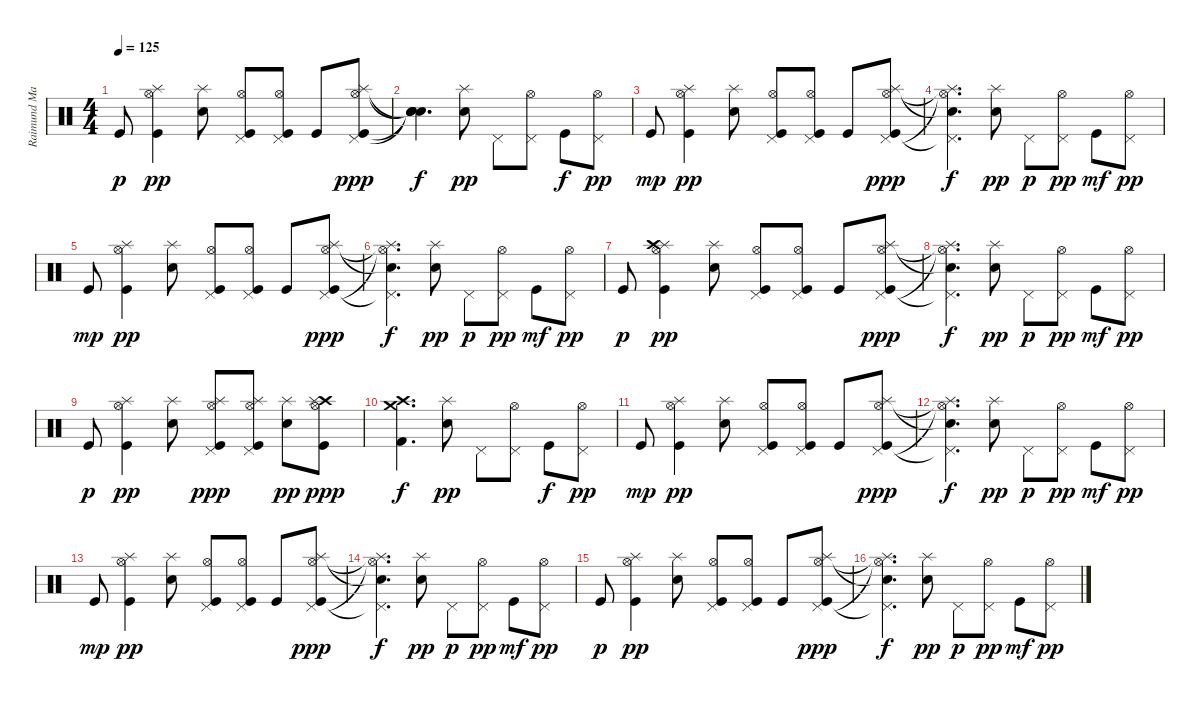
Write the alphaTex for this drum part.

\track ("Raimund Marasigan (Drums)" "Raimund Ma") {instrument percussion}
\staff {score}
\articulation defaults
\ts (4 4)
\tempo 125
\clef neutral
\ks c "Kick (hit)".8{dy p}
("Kick (hit)" "Splash (hit)" "Hi-Hat (open)").4{dy pp} ("Electric Snare (hit)" "Splash (hit)").8 ("Kick (hit)" "Pedal Hi-Hat (hit)" "Hi-Hat (open)").8 ("Kick (hit)" "Pedal Hi-Hat (hit)" "Hi-Hat (open)").8 "Kick (hit)".8 ("Kick (hit)" "Pedal Hi-Hat (hit)" "Hi-Hat (open)" "Splash (hit)").8{dy ppp} |
("Snare (hit)"{t} "Snare (hit)"{t} "Snare (hit)"{t} "Snare (hit)"{t}).4{d dy f} ("Electric Snare (hit)" "Splash (hit)").8{dy pp} "Pedal Hi-Hat (hit)".8 ("Pedal Hi-Hat (hit)" "Hi-Hat (open)").8 "Kick (hit)".8{dy f} ("Pedal Hi-Hat (hit)" "Hi-Hat (open)").8{dy pp} |
"Kick (hit)".8{dy mp} ("Kick (hit)" "Splash (hit)" "Hi-Hat (open)").4{dy pp} ("Electric Snare (hit)" "Splash (hit)").8 ("Kick (hit)" "Pedal Hi-Hat (hit)" "Hi-Hat (open)").8 ("Kick (hit)" "Pedal Hi-Hat (hit)" "Hi-Hat (open)").8 "Kick (hit)".8 ("Kick (hit)" "Pedal Hi-Hat (hit)" "Hi-Hat (open)" "Splash (hit)").8{dy ppp} |
("Pedal Hi-Hat (hit)"{t} "Hi-Hat (open)"{t} "Splash (hit)"{t} "Snare (hit)"{t}).4{d dy f} ("Electric Snare (hit)" "Splash (hit)").8{dy pp} "Pedal Hi-Hat (hit)".8{dy p} ("Pedal Hi-Hat (hit)" "Hi-Hat (open)").8{dy pp} "Kick (hit)".8{dy mf} ("Pedal Hi-Hat (hit)" "Hi-Hat (open)").8{dy pp} |
"Kick (hit)".8{dy mp} ("Kick (hit)" "Splash (hit)" "Hi-Hat (open)").4{dy pp} ("Electric Snare (hit)" "Splash (hit)").8 ("Kick (hit)" "Pedal Hi-Hat (hit)" "Hi-Hat (open)").8 ("Kick (hit)" "Pedal Hi-Hat (hit)" "Hi-Hat (open)").8 "Kick (hit)".8 ("Kick (hit)" "Pedal Hi-Hat (hit)" "Hi-Hat (open)" "Splash (hit)").8{dy ppp} |
("Pedal Hi-Hat (hit)"{t} "Hi-Hat (open)"{t} "Splash (hit)"{t} "Snare (hit)"{t}).4{d dy f} ("Electric Snare (hit)" "Splash (hit)").8{dy pp} "Pedal Hi-Hat (hit)".8{dy p} ("Pedal Hi-Hat (hit)" "Hi-Hat (open)").8{dy pp} "Kick (hit)".8{dy mf} ("Pedal Hi-Hat (hit)" "Hi-Hat (open)").8{dy pp} |
"Kick (hit)".8{dy p} ("Kick (hit)" "Splash (hit)" "Hi-Hat (open)" "Crash high (hit)").4{dy pp} ("Electric Snare (hit)" "Splash (hit)").8 ("Kick (hit)" "Pedal Hi-Hat (hit)" "Hi-Hat (open)").8 ("Kick (hit)" "Pedal Hi-Hat (hit)" "Hi-Hat (open)").8 "Kick (hit)".8 ("Kick (hit)" "Pedal Hi-Hat (hit)" "Hi-Hat (open)" "Splash (hit)").8{dy ppp} |
("Pedal Hi-Hat (hit)"{t} "Hi-Hat (open)"{t} "Splash (hit)"{t} "Snare (hit)"{t}).4{d dy f} ("Electric Snare (hit)" "Splash (hit)").8{dy pp} "Pedal Hi-Hat (hit)".8{dy p} ("Pedal Hi-Hat (hit)" "Hi-Hat (open)").8{dy pp} "Kick (hit)".8{dy mf} ("Pedal Hi-Hat (hit)" "Hi-Hat (open)").8{dy pp} |
"Kick (hit)".8{dy p} ("Kick (hit)" "Splash (hit)" "Hi-Hat (open)").4{dy pp} ("Electric Snare (hit)" "Splash (hit)").8 ("Kick (hit)" "Pedal Hi-Hat (hit)" "Hi-Hat (open)" "Splash (hit)").8{dy ppp} ("Kick (hit)" "Pedal Hi-Hat (hit)" "Hi-Hat (open)" "Splash (hit)").8 ("Electric Snare (hit)" "Splash (hit)").8{dy pp} ("Crash high (hit)" "Kick (hit)" "Hi-Hat (open)" "Splash (hit)").8{dy ppp} |
("Crash high (hit)" "Crash medium (hit)" "Kick (hit) 2").4{d dy f} ("Electric Snare (hit)" "Splash (hit)").8{dy pp} "Pedal Hi-Hat (hit)".8 ("Pedal Hi-Hat (hit)" "Hi-Hat (open)").8 "Kick (hit)".8{dy f} ("Pedal Hi-Hat (hit)" "Hi-Hat (open)").8{dy pp} |
"Kick (hit)".8{dy mp} ("Kick (hit)" "Splash (hit)" "Hi-Hat (open)").4{dy pp} ("Electric Snare (hit)" "Splash (hit)").8 ("Kick (hit)" "Pedal Hi-Hat (hit)" "Hi-Hat (open)").8 ("Kick (hit)" "Pedal Hi-Hat (hit)" "Hi-Hat (open)").8 "Kick (hit)".8 ("Kick (hit)" "Pedal Hi-Hat (hit)" "Hi-Hat (open)" "Splash (hit)").8{dy ppp} |
("Pedal Hi-Hat (hit)"{t} "Hi-Hat (open)"{t} "Splash (hit)"{t} "Snare (hit)"{t}).4{d dy f} ("Electric Snare (hit)" "Splash (hit)").8{dy pp} "Pedal Hi-Hat (hit)".8{dy p} ("Pedal Hi-Hat (hit)" "Hi-Hat (open)").8{dy pp} "Kick (hit)".8{dy mf} ("Pedal Hi-Hat (hit)" "Hi-Hat (open)").8{dy pp} |
"Kick (hit)".8{dy mp} ("Kick (hit)" "Splash (hit)" "Hi-Hat (open)").4{dy pp} ("Electric Snare (hit)" "Splash (hit)").8 ("Kick (hit)" "Pedal Hi-Hat (hit)" "Hi-Hat (open)").8 ("Kick (hit)" "Pedal Hi-Hat (hit)" "Hi-Hat (open)").8 "Kick (hit)".8 ("Kick (hit)" "Pedal Hi-Hat (hit)" "Hi-Hat (open)" "Splash (hit)").8{dy ppp} |
("Pedal Hi-Hat (hit)"{t} "Hi-Hat (open)"{t} "Splash (hit)"{t} "Snare (hit)"{t}).4{d dy f} ("Electric Snare (hit)" "Splash (hit)").8{dy pp} "Pedal Hi-Hat (hit)".8{dy p} ("Pedal Hi-Hat (hit)" "Hi-Hat (open)").8{dy pp} "Kick (hit)".8{dy mf} ("Pedal Hi-Hat (hit)" "Hi-Hat (open)").8{dy pp} |
"Kick (hit)".8{dy p} ("Kick (hit)" "Splash (hit)" "Hi-Hat (open)").4{dy pp} ("Electric Snare (hit)" "Splash (hit)").8 ("Kick (hit)" "Pedal Hi-Hat (hit)" "Hi-Hat (open)").8 ("Kick (hit)" "Pedal Hi-Hat (hit)" "Hi-Hat (open)").8 "Kick (hit)".8 ("Kick (hit)" "Pedal Hi-Hat (hit)" "Hi-Hat (open)" "Splash (hit)").8{dy ppp} |
("Pedal Hi-Hat (hit)"{t} "Hi-Hat (open)"{t} "Splash (hit)"{t} "Snare (hit)"{t}).4{d dy f} ("Electric Snare (hit)" "Splash (hit)").8{dy pp} "Pedal Hi-Hat (hit)".8{dy p} ("Pedal Hi-Hat (hit)" "Hi-Hat (open)").8{dy pp} "Kick (hit)".8{dy mf} ("Pedal Hi-Hat (hit)" "Hi-Hat (open)").8{dy pp}
